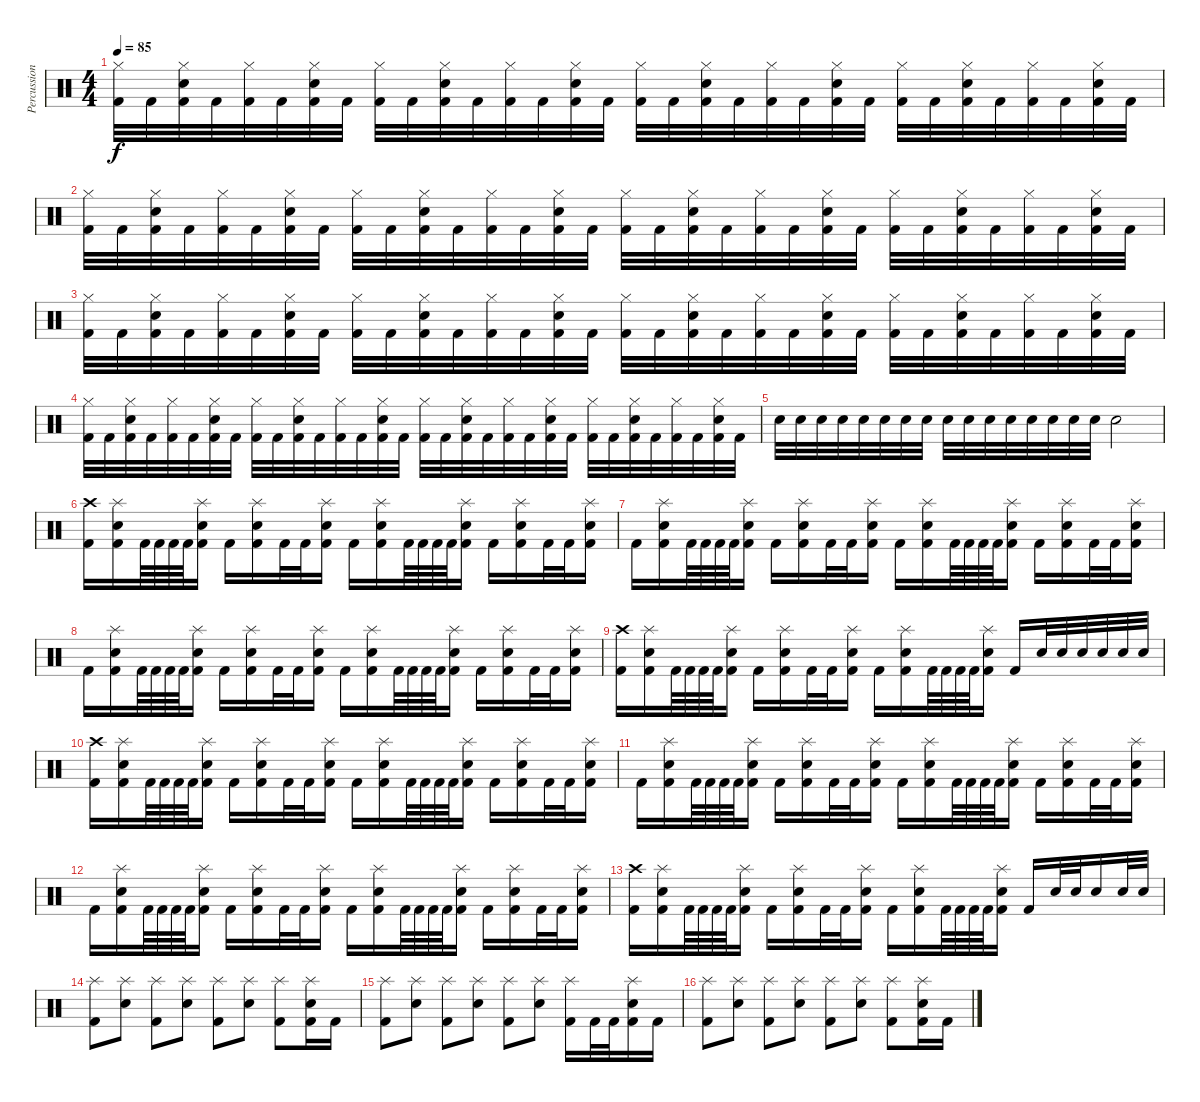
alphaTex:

\track ("Percussion" "Percussion") {instrument percussion}
\staff {score}
\articulation defaults
\ts (4 4)
\tempo 85
\clef neutral
\ks c
("Hi-Hat (closed)" "Kick (hit) 2").32{dy f} "Kick (hit) 2".32 ("Hi-Hat (closed)" "Snare (hit) 2" "Kick (hit) 2").32 "Kick (hit) 2".32 ("Hi-Hat (closed)" "Kick (hit) 2").32 "Kick (hit) 2".32 ("Hi-Hat (closed)" "Snare (hit) 2" "Kick (hit) 2").32 "Kick (hit) 2".32 ("Hi-Hat (closed)" "Kick (hit) 2").32 "Kick (hit) 2".32 ("Hi-Hat (closed)" "Snare (hit) 2" "Kick (hit) 2").32 "Kick (hit) 2".32 ("Hi-Hat (closed)" "Kick (hit) 2").32 "Kick (hit) 2".32 ("Hi-Hat (closed)" "Snare (hit) 2" "Kick (hit) 2").32 "Kick (hit) 2".32 ("Hi-Hat (closed)" "Kick (hit) 2").32 "Kick (hit) 2".32 ("Hi-Hat (closed)" "Snare (hit) 2" "Kick (hit) 2").32 "Kick (hit) 2".32 ("Hi-Hat (closed)" "Kick (hit) 2").32 "Kick (hit) 2".32 ("Hi-Hat (closed)" "Snare (hit) 2" "Kick (hit) 2").32 "Kick (hit) 2".32 ("Hi-Hat (closed)" "Kick (hit) 2").32 "Kick (hit) 2".32 ("Hi-Hat (closed)" "Snare (hit) 2" "Kick (hit) 2").32 "Kick (hit) 2".32 ("Hi-Hat (closed)" "Kick (hit) 2").32 "Kick (hit) 2".32 ("Hi-Hat (closed)" "Snare (hit) 2" "Kick (hit) 2").32 "Kick (hit) 2".32 |
("Hi-Hat (closed)" "Kick (hit) 2").32 "Kick (hit) 2".32 ("Hi-Hat (closed)" "Snare (hit) 2" "Kick (hit) 2").32 "Kick (hit) 2".32 ("Hi-Hat (closed)" "Kick (hit) 2").32 "Kick (hit) 2".32 ("Hi-Hat (closed)" "Snare (hit) 2" "Kick (hit) 2").32 "Kick (hit) 2".32 ("Hi-Hat (closed)" "Kick (hit) 2").32 "Kick (hit) 2".32 ("Hi-Hat (closed)" "Snare (hit) 2" "Kick (hit) 2").32 "Kick (hit) 2".32 ("Hi-Hat (closed)" "Kick (hit) 2").32 "Kick (hit) 2".32 ("Hi-Hat (closed)" "Snare (hit) 2" "Kick (hit) 2").32 "Kick (hit) 2".32 ("Hi-Hat (closed)" "Kick (hit) 2").32 "Kick (hit) 2".32 ("Hi-Hat (closed)" "Snare (hit) 2" "Kick (hit) 2").32 "Kick (hit) 2".32 ("Hi-Hat (closed)" "Kick (hit) 2").32 "Kick (hit) 2".32 ("Hi-Hat (closed)" "Snare (hit) 2" "Kick (hit) 2").32 "Kick (hit) 2".32 ("Hi-Hat (closed)" "Kick (hit) 2").32 "Kick (hit) 2".32 ("Hi-Hat (closed)" "Snare (hit) 2" "Kick (hit) 2").32 "Kick (hit) 2".32 ("Hi-Hat (closed)" "Kick (hit) 2").32 "Kick (hit) 2".32 ("Hi-Hat (closed)" "Snare (hit) 2" "Kick (hit) 2").32 "Kick (hit) 2".32 |
("Hi-Hat (closed)" "Kick (hit) 2").32 "Kick (hit) 2".32 ("Hi-Hat (closed)" "Snare (hit) 2" "Kick (hit) 2").32 "Kick (hit) 2".32 ("Hi-Hat (closed)" "Kick (hit) 2").32 "Kick (hit) 2".32 ("Hi-Hat (closed)" "Snare (hit) 2" "Kick (hit) 2").32 "Kick (hit) 2".32 ("Hi-Hat (closed)" "Kick (hit) 2").32 "Kick (hit) 2".32 ("Hi-Hat (closed)" "Snare (hit) 2" "Kick (hit) 2").32 "Kick (hit) 2".32 ("Hi-Hat (closed)" "Kick (hit) 2").32 "Kick (hit) 2".32 ("Hi-Hat (closed)" "Snare (hit) 2" "Kick (hit) 2").32 "Kick (hit) 2".32 ("Hi-Hat (closed)" "Kick (hit) 2").32 "Kick (hit) 2".32 ("Hi-Hat (closed)" "Snare (hit) 2" "Kick (hit) 2").32 "Kick (hit) 2".32 ("Hi-Hat (closed)" "Kick (hit) 2").32 "Kick (hit) 2".32 ("Hi-Hat (closed)" "Snare (hit) 2" "Kick (hit) 2").32 "Kick (hit) 2".32 ("Hi-Hat (closed)" "Kick (hit) 2").32 "Kick (hit) 2".32 ("Hi-Hat (closed)" "Snare (hit) 2" "Kick (hit) 2").32 "Kick (hit) 2".32 ("Hi-Hat (closed)" "Kick (hit) 2").32 "Kick (hit) 2".32 ("Hi-Hat (closed)" "Snare (hit) 2" "Kick (hit) 2").32 "Kick (hit) 2".32 |
("Hi-Hat (closed)" "Kick (hit) 2").32 "Kick (hit) 2".32 ("Hi-Hat (closed)" "Snare (hit) 2" "Kick (hit) 2").32 "Kick (hit) 2".32 ("Hi-Hat (closed)" "Kick (hit) 2").32 "Kick (hit) 2".32 ("Hi-Hat (closed)" "Snare (hit) 2" "Kick (hit) 2").32 "Kick (hit) 2".32 ("Hi-Hat (closed)" "Kick (hit) 2").32 "Kick (hit) 2".32 ("Hi-Hat (closed)" "Snare (hit) 2" "Kick (hit) 2").32 "Kick (hit) 2".32 ("Hi-Hat (closed)" "Kick (hit) 2").32 "Kick (hit) 2".32 ("Hi-Hat (closed)" "Snare (hit) 2" "Kick (hit) 2").32 "Kick (hit) 2".32 ("Hi-Hat (closed)" "Kick (hit) 2").32 "Kick (hit) 2".32 ("Hi-Hat (closed)" "Snare (hit) 2" "Kick (hit) 2").32 "Kick (hit) 2".32 ("Hi-Hat (closed)" "Kick (hit) 2").32 "Kick (hit) 2".32 ("Hi-Hat (closed)" "Snare (hit) 2" "Kick (hit) 2").32 "Kick (hit) 2".32 ("Hi-Hat (closed)" "Kick (hit) 2").32 "Kick (hit) 2".32 ("Hi-Hat (closed)" "Snare (hit) 2" "Kick (hit) 2").32 "Kick (hit) 2".32 ("Hi-Hat (closed)" "Kick (hit) 2").32 "Kick (hit) 2".32 ("Hi-Hat (closed)" "Snare (hit) 2" "Kick (hit) 2").32 "Kick (hit) 2".32 |
"Snare (hit) 2".32 "Snare (hit) 2".32 "Snare (hit) 2".32 "Snare (hit) 2".32 "Snare (hit) 2".32 "Snare (hit) 2".32 "Snare (hit) 2".32 "Snare (hit) 2".32 "Snare (hit) 2".32 "Snare (hit) 2".32 "Snare (hit) 2".32 "Snare (hit) 2".32 "Snare (hit) 2".32 "Snare (hit) 2".32 "Snare (hit) 2".32 "Snare (hit) 2".32 "Snare (hit) 2".2 |
("Crash high (hit)" "Kick (hit) 2").16 ("Snare (hit) 2" "Splash (hit)" "Kick (hit) 2").16 "Kick (hit) 2".64 "Kick (hit) 2".64 "Kick (hit) 2".64 "Kick (hit) 2".64 ("Snare (hit) 2" "Splash (hit)" "Kick (hit) 2").16 "Kick (hit) 2".16 ("Snare (hit) 2" "Splash (hit)" "Kick (hit) 2").16 "Kick (hit) 2".32 "Kick (hit) 2".32 ("Snare (hit) 2" "Splash (hit)" "Kick (hit) 2").16 "Kick (hit) 2".16 ("Snare (hit) 2" "Splash (hit)" "Kick (hit) 2").16 "Kick (hit) 2".64 "Kick (hit) 2".64 "Kick (hit) 2".64 "Kick (hit) 2".64 ("Snare (hit) 2" "Splash (hit)" "Kick (hit) 2").16 "Kick (hit) 2".16 ("Snare (hit) 2" "Splash (hit)" "Kick (hit) 2").16 "Kick (hit) 2".32 "Kick (hit) 2".32 ("Snare (hit) 2" "Splash (hit)" "Kick (hit) 2").16 |
"Kick (hit) 2".16 ("Snare (hit) 2" "Splash (hit)" "Kick (hit) 2").16 "Kick (hit) 2".64 "Kick (hit) 2".64 "Kick (hit) 2".64 "Kick (hit) 2".64 ("Snare (hit) 2" "Splash (hit)" "Kick (hit) 2").16 "Kick (hit) 2".16 ("Snare (hit) 2" "Splash (hit)" "Kick (hit) 2").16 "Kick (hit) 2".32 "Kick (hit) 2".32 ("Snare (hit) 2" "Splash (hit)" "Kick (hit) 2").16 "Kick (hit) 2".16 ("Snare (hit) 2" "Splash (hit)" "Kick (hit) 2").16 "Kick (hit) 2".64 "Kick (hit) 2".64 "Kick (hit) 2".64 "Kick (hit) 2".64 ("Snare (hit) 2" "Splash (hit)" "Kick (hit) 2").16 "Kick (hit) 2".16 ("Snare (hit) 2" "Splash (hit)" "Kick (hit) 2").16 "Kick (hit) 2".32 "Kick (hit) 2".32 ("Snare (hit) 2" "Splash (hit)" "Kick (hit) 2").16 |
"Kick (hit) 2".16 ("Snare (hit) 2" "Splash (hit)" "Kick (hit) 2").16 "Kick (hit) 2".64 "Kick (hit) 2".64 "Kick (hit) 2".64 "Kick (hit) 2".64 ("Snare (hit) 2" "Splash (hit)" "Kick (hit) 2").16 "Kick (hit) 2".16 ("Snare (hit) 2" "Splash (hit)" "Kick (hit) 2").16 "Kick (hit) 2".32 "Kick (hit) 2".32 ("Snare (hit) 2" "Splash (hit)" "Kick (hit) 2").16 "Kick (hit) 2".16 ("Snare (hit) 2" "Splash (hit)" "Kick (hit) 2").16 "Kick (hit) 2".64 "Kick (hit) 2".64 "Kick (hit) 2".64 "Kick (hit) 2".64 ("Snare (hit) 2" "Splash (hit)" "Kick (hit) 2").16 "Kick (hit) 2".16 ("Snare (hit) 2" "Splash (hit)" "Kick (hit) 2").16 "Kick (hit) 2".32 "Kick (hit) 2".32 ("Snare (hit) 2" "Splash (hit)" "Kick (hit) 2").16 |
("Crash high (hit)" "Kick (hit) 2").16 ("Snare (hit) 2" "Splash (hit)" "Kick (hit) 2").16 "Kick (hit) 2".64 "Kick (hit) 2".64 "Kick (hit) 2".64 "Kick (hit) 2".64 ("Snare (hit) 2" "Splash (hit)" "Kick (hit) 2").16 "Kick (hit) 2".16 ("Snare (hit) 2" "Splash (hit)" "Kick (hit) 2").16 "Kick (hit) 2".32 "Kick (hit) 2".32 ("Snare (hit) 2" "Splash (hit)" "Kick (hit) 2").16 "Kick (hit) 2".16 ("Snare (hit) 2" "Splash (hit)" "Kick (hit) 2").16 "Kick (hit) 2".64 "Kick (hit) 2".64 "Kick (hit) 2".64 "Kick (hit) 2".64 ("Snare (hit) 2" "Splash (hit)" "Kick (hit) 2").16 "Kick (hit) 2".16 "Snare (hit) 2".32 "Snare (hit) 2".32 "Snare (hit) 2".32 "Snare (hit) 2".32 "Snare (hit) 2".32 "Snare (hit) 2".32 |
("Crash high (hit)" "Kick (hit) 2").16 ("Snare (hit) 2" "Splash (hit)" "Kick (hit) 2").16 "Kick (hit) 2".64 "Kick (hit) 2".64 "Kick (hit) 2".64 "Kick (hit) 2".64 ("Snare (hit) 2" "Splash (hit)" "Kick (hit) 2").16 "Kick (hit) 2".16 ("Snare (hit) 2" "Splash (hit)" "Kick (hit) 2").16 "Kick (hit) 2".32 "Kick (hit) 2".32 ("Snare (hit) 2" "Splash (hit)" "Kick (hit) 2").16 "Kick (hit) 2".16 ("Snare (hit) 2" "Splash (hit)" "Kick (hit) 2").16 "Kick (hit) 2".64 "Kick (hit) 2".64 "Kick (hit) 2".64 "Kick (hit) 2".64 ("Snare (hit) 2" "Splash (hit)" "Kick (hit) 2").16 "Kick (hit) 2".16 ("Snare (hit) 2" "Splash (hit)" "Kick (hit) 2").16 "Kick (hit) 2".32 "Kick (hit) 2".32 ("Snare (hit) 2" "Splash (hit)" "Kick (hit) 2").16 |
"Kick (hit) 2".16 ("Snare (hit) 2" "Splash (hit)" "Kick (hit) 2").16 "Kick (hit) 2".64 "Kick (hit) 2".64 "Kick (hit) 2".64 "Kick (hit) 2".64 ("Snare (hit) 2" "Splash (hit)" "Kick (hit) 2").16 "Kick (hit) 2".16 ("Snare (hit) 2" "Splash (hit)" "Kick (hit) 2").16 "Kick (hit) 2".32 "Kick (hit) 2".32 ("Snare (hit) 2" "Splash (hit)" "Kick (hit) 2").16 "Kick (hit) 2".16 ("Snare (hit) 2" "Splash (hit)" "Kick (hit) 2").16 "Kick (hit) 2".64 "Kick (hit) 2".64 "Kick (hit) 2".64 "Kick (hit) 2".64 ("Snare (hit) 2" "Splash (hit)" "Kick (hit) 2").16 "Kick (hit) 2".16 ("Snare (hit) 2" "Splash (hit)" "Kick (hit) 2").16 "Kick (hit) 2".32 "Kick (hit) 2".32 ("Snare (hit) 2" "Splash (hit)" "Kick (hit) 2").16 |
"Kick (hit) 2".16 ("Snare (hit) 2" "Splash (hit)" "Kick (hit) 2").16 "Kick (hit) 2".64 "Kick (hit) 2".64 "Kick (hit) 2".64 "Kick (hit) 2".64 ("Snare (hit) 2" "Splash (hit)" "Kick (hit) 2").16 "Kick (hit) 2".16 ("Snare (hit) 2" "Splash (hit)" "Kick (hit) 2").16 "Kick (hit) 2".32 "Kick (hit) 2".32 ("Snare (hit) 2" "Splash (hit)" "Kick (hit) 2").16 "Kick (hit) 2".16 ("Snare (hit) 2" "Splash (hit)" "Kick (hit) 2").16 "Kick (hit) 2".64 "Kick (hit) 2".64 "Kick (hit) 2".64 "Kick (hit) 2".64 ("Snare (hit) 2" "Splash (hit)" "Kick (hit) 2").16 "Kick (hit) 2".16 ("Snare (hit) 2" "Splash (hit)" "Kick (hit) 2").16 "Kick (hit) 2".32 "Kick (hit) 2".32 ("Snare (hit) 2" "Splash (hit)" "Kick (hit) 2").16 |
("Crash high (hit)" "Kick (hit) 2").16 ("Snare (hit) 2" "Splash (hit)" "Kick (hit) 2").16 "Kick (hit) 2".64 "Kick (hit) 2".64 "Kick (hit) 2".64 "Kick (hit) 2".64 ("Snare (hit) 2" "Splash (hit)" "Kick (hit) 2").16 "Kick (hit) 2".16 ("Snare (hit) 2" "Splash (hit)" "Kick (hit) 2").16 "Kick (hit) 2".32 "Kick (hit) 2".32 ("Snare (hit) 2" "Splash (hit)" "Kick (hit) 2").16 "Kick (hit) 2".16 ("Snare (hit) 2" "Splash (hit)" "Kick (hit) 2").16 "Kick (hit) 2".64 "Kick (hit) 2".64 "Kick (hit) 2".64 "Kick (hit) 2".64 ("Snare (hit) 2" "Splash (hit)" "Kick (hit) 2").16 "Kick (hit) 2".16 "Snare (hit) 2".32 "Snare (hit) 2".32 "Snare (hit) 2".16 "Snare (hit) 2".32 "Snare (hit) 2".32 |
("Splash (hit)" "Kick (hit) 2").8 ("Splash (hit)" "Snare (hit) 2").8 ("Splash (hit)" "Kick (hit) 2").8 ("Splash (hit)" "Snare (hit) 2").8 ("Splash (hit)" "Kick (hit) 2").8 ("Splash (hit)" "Snare (hit) 2").8 ("Splash (hit)" "Kick (hit) 2").8 ("Splash (hit)" "Snare (hit) 2" "Kick (hit) 2").16 "Kick (hit) 2".16 |
("Splash (hit)" "Kick (hit) 2").8 ("Splash (hit)" "Snare (hit) 2").8 ("Splash (hit)" "Kick (hit) 2").8 ("Splash (hit)" "Snare (hit) 2").8 ("Splash (hit)" "Kick (hit) 2").8 ("Splash (hit)" "Snare (hit) 2").8 ("Splash (hit)" "Kick (hit) 2").16 "Kick (hit) 2".32 "Kick (hit) 2".32 ("Splash (hit)" "Snare (hit) 2" "Kick (hit) 2").16 "Kick (hit) 2".16 |
("Splash (hit)" "Kick (hit) 2").8 ("Splash (hit)" "Snare (hit) 2").8 ("Splash (hit)" "Kick (hit) 2").8 ("Splash (hit)" "Snare (hit) 2").8 ("Splash (hit)" "Kick (hit) 2").8 ("Splash (hit)" "Snare (hit) 2").8 ("Splash (hit)" "Kick (hit) 2").8 ("Splash (hit)" "Snare (hit) 2" "Kick (hit) 2").16 "Kick (hit) 2".16
